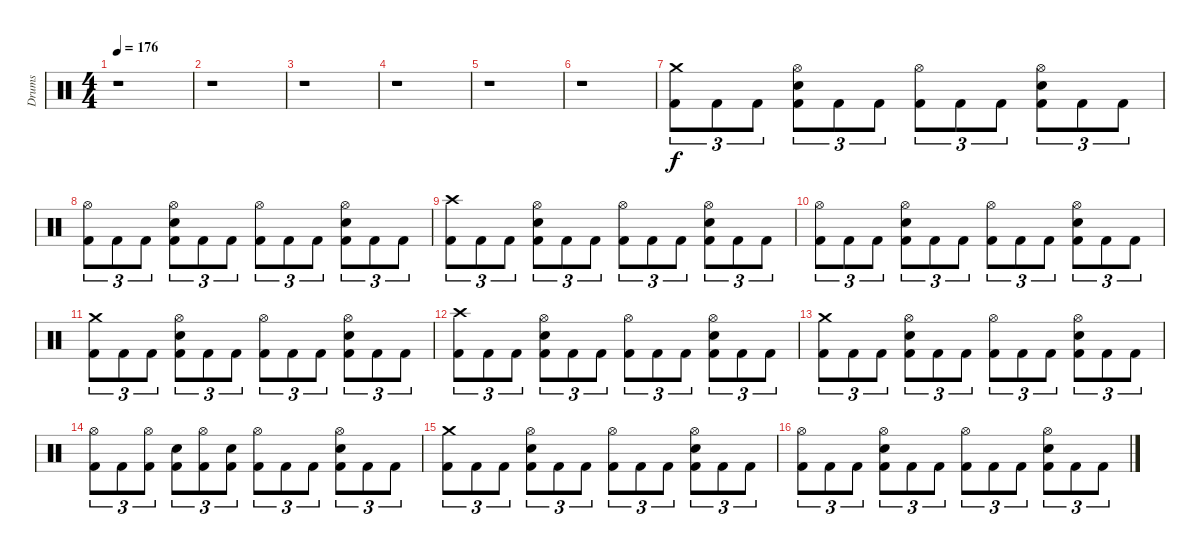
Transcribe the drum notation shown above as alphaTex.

\track ("Drums" "Drums") {instrument percussion}
\staff {score}
\articulation defaults
\ts (4 4)
\tempo 176
\clef neutral
\ks c
r.1{dy f} |
r.1 |
r.1 |
r.1 |
r.1 |
r.1 |
\section ("" "")
("Kick (hit) 2" "Crash medium (hit)").8{tu (3 2)} "Kick (hit) 2".8{tu (3 2)} "Kick (hit) 2".8{tu (3 2)} ("Kick (hit) 2" "Electric Snare (hit)" "Hi-Hat (open)").8{tu (3 2)} "Kick (hit) 2".8{tu (3 2)} "Kick (hit) 2".8{tu (3 2)} ("Kick (hit) 2" "Hi-Hat (open)").8{tu (3 2)} "Kick (hit) 2".8{tu (3 2)} "Kick (hit) 2".8{tu (3 2)} ("Kick (hit) 2" "Electric Snare (hit)" "Hi-Hat (open)").8{tu (3 2)} "Kick (hit) 2".8{tu (3 2)} "Kick (hit) 2".8{tu (3 2)} |
("Kick (hit) 2" "Hi-Hat (open)").8{tu (3 2)} "Kick (hit) 2".8{tu (3 2)} "Kick (hit) 2".8{tu (3 2)} ("Kick (hit) 2" "Electric Snare (hit)" "Hi-Hat (open)").8{tu (3 2)} "Kick (hit) 2".8{tu (3 2)} "Kick (hit) 2".8{tu (3 2)} ("Kick (hit) 2" "Hi-Hat (open)").8{tu (3 2)} "Kick (hit) 2".8{tu (3 2)} "Kick (hit) 2".8{tu (3 2)} ("Kick (hit) 2" "Electric Snare (hit)" "Hi-Hat (open)").8{tu (3 2)} "Kick (hit) 2".8{tu (3 2)} "Kick (hit) 2".8{tu (3 2)} |
("Kick (hit) 2" "Crash high (hit)").8{tu (3 2)} "Kick (hit) 2".8{tu (3 2)} "Kick (hit) 2".8{tu (3 2)} ("Kick (hit) 2" "Electric Snare (hit)" "Hi-Hat (open)").8{tu (3 2)} "Kick (hit) 2".8{tu (3 2)} "Kick (hit) 2".8{tu (3 2)} ("Kick (hit) 2" "Hi-Hat (open)").8{tu (3 2)} "Kick (hit) 2".8{tu (3 2)} "Kick (hit) 2".8{tu (3 2)} ("Kick (hit) 2" "Electric Snare (hit)" "Hi-Hat (open)").8{tu (3 2)} "Kick (hit) 2".8{tu (3 2)} "Kick (hit) 2".8{tu (3 2)} |
("Kick (hit) 2" "Hi-Hat (open)").8{tu (3 2)} "Kick (hit) 2".8{tu (3 2)} "Kick (hit) 2".8{tu (3 2)} ("Kick (hit) 2" "Electric Snare (hit)" "Hi-Hat (open)").8{tu (3 2)} "Kick (hit) 2".8{tu (3 2)} "Kick (hit) 2".8{tu (3 2)} ("Kick (hit) 2" "Hi-Hat (open)").8{tu (3 2)} "Kick (hit) 2".8{tu (3 2)} "Kick (hit) 2".8{tu (3 2)} ("Kick (hit) 2" "Electric Snare (hit)" "Hi-Hat (open)").8{tu (3 2)} "Kick (hit) 2".8{tu (3 2)} "Kick (hit) 2".8{tu (3 2)} |
("Kick (hit) 2" "Crash medium (hit)").8{tu (3 2)} "Kick (hit) 2".8{tu (3 2)} "Kick (hit) 2".8{tu (3 2)} ("Kick (hit) 2" "Electric Snare (hit)" "Hi-Hat (open)").8{tu (3 2)} "Kick (hit) 2".8{tu (3 2)} "Kick (hit) 2".8{tu (3 2)} ("Kick (hit) 2" "Hi-Hat (open)").8{tu (3 2)} "Kick (hit) 2".8{tu (3 2)} "Kick (hit) 2".8{tu (3 2)} ("Kick (hit) 2" "Electric Snare (hit)" "Hi-Hat (open)").8{tu (3 2)} "Kick (hit) 2".8{tu (3 2)} "Kick (hit) 2".8{tu (3 2)} |
("Kick (hit) 2" "Crash high (hit)").8{tu (3 2)} "Kick (hit) 2".8{tu (3 2)} "Kick (hit) 2".8{tu (3 2)} ("Kick (hit) 2" "Electric Snare (hit)" "Hi-Hat (open)").8{tu (3 2)} "Kick (hit) 2".8{tu (3 2)} "Kick (hit) 2".8{tu (3 2)} ("Kick (hit) 2" "Hi-Hat (open)").8{tu (3 2)} "Kick (hit) 2".8{tu (3 2)} "Kick (hit) 2".8{tu (3 2)} ("Kick (hit) 2" "Electric Snare (hit)" "Hi-Hat (open)").8{tu (3 2)} "Kick (hit) 2".8{tu (3 2)} "Kick (hit) 2".8{tu (3 2)} |
("Kick (hit) 2" "Crash medium (hit)").8{tu (3 2)} "Kick (hit) 2".8{tu (3 2)} "Kick (hit) 2".8{tu (3 2)} ("Kick (hit) 2" "Electric Snare (hit)" "Hi-Hat (open)").8{tu (3 2)} "Kick (hit) 2".8{tu (3 2)} "Kick (hit) 2".8{tu (3 2)} ("Kick (hit) 2" "Hi-Hat (open)").8{tu (3 2)} "Kick (hit) 2".8{tu (3 2)} "Kick (hit) 2".8{tu (3 2)} ("Kick (hit) 2" "Electric Snare (hit)" "Hi-Hat (open)").8{tu (3 2)} "Kick (hit) 2".8{tu (3 2)} "Kick (hit) 2".8{tu (3 2)} |
("Kick (hit) 2" "Hi-Hat (open)").8{tu (3 2)} "Kick (hit) 2".8{tu (3 2)} ("Kick (hit) 2" "Hi-Hat (open)").8{tu (3 2)} ("Kick (hit) 2" "Electric Snare (hit)").8{tu (3 2)} ("Kick (hit) 2" "Hi-Hat (open)").8{tu (3 2)} ("Kick (hit) 2" "Electric Snare (hit)").8{tu (3 2)} ("Kick (hit) 2" "Hi-Hat (open)").8{tu (3 2)} "Kick (hit) 2".8{tu (3 2)} "Kick (hit) 2".8{tu (3 2)} ("Kick (hit) 2" "Electric Snare (hit)" "Hi-Hat (open)").8{tu (3 2)} "Kick (hit) 2".8{tu (3 2)} "Kick (hit) 2".8{tu (3 2)} |
\section ("" "")
("Kick (hit) 2" "Crash medium (hit)").8{tu (3 2)} "Kick (hit) 2".8{tu (3 2)} "Kick (hit) 2".8{tu (3 2)} ("Kick (hit) 2" "Electric Snare (hit)" "Hi-Hat (open)").8{tu (3 2)} "Kick (hit) 2".8{tu (3 2)} "Kick (hit) 2".8{tu (3 2)} ("Kick (hit) 2" "Hi-Hat (open)").8{tu (3 2)} "Kick (hit) 2".8{tu (3 2)} "Kick (hit) 2".8{tu (3 2)} ("Kick (hit) 2" "Electric Snare (hit)" "Hi-Hat (open)").8{tu (3 2)} "Kick (hit) 2".8{tu (3 2)} "Kick (hit) 2".8{tu (3 2)} |
("Kick (hit) 2" "Hi-Hat (open)").8{tu (3 2)} "Kick (hit) 2".8{tu (3 2)} "Kick (hit) 2".8{tu (3 2)} ("Kick (hit) 2" "Electric Snare (hit)" "Hi-Hat (open)").8{tu (3 2)} "Kick (hit) 2".8{tu (3 2)} "Kick (hit) 2".8{tu (3 2)} ("Kick (hit) 2" "Hi-Hat (open)").8{tu (3 2)} "Kick (hit) 2".8{tu (3 2)} "Kick (hit) 2".8{tu (3 2)} ("Kick (hit) 2" "Electric Snare (hit)" "Hi-Hat (open)").8{tu (3 2)} "Kick (hit) 2".8{tu (3 2)} "Kick (hit) 2".8{tu (3 2)}
